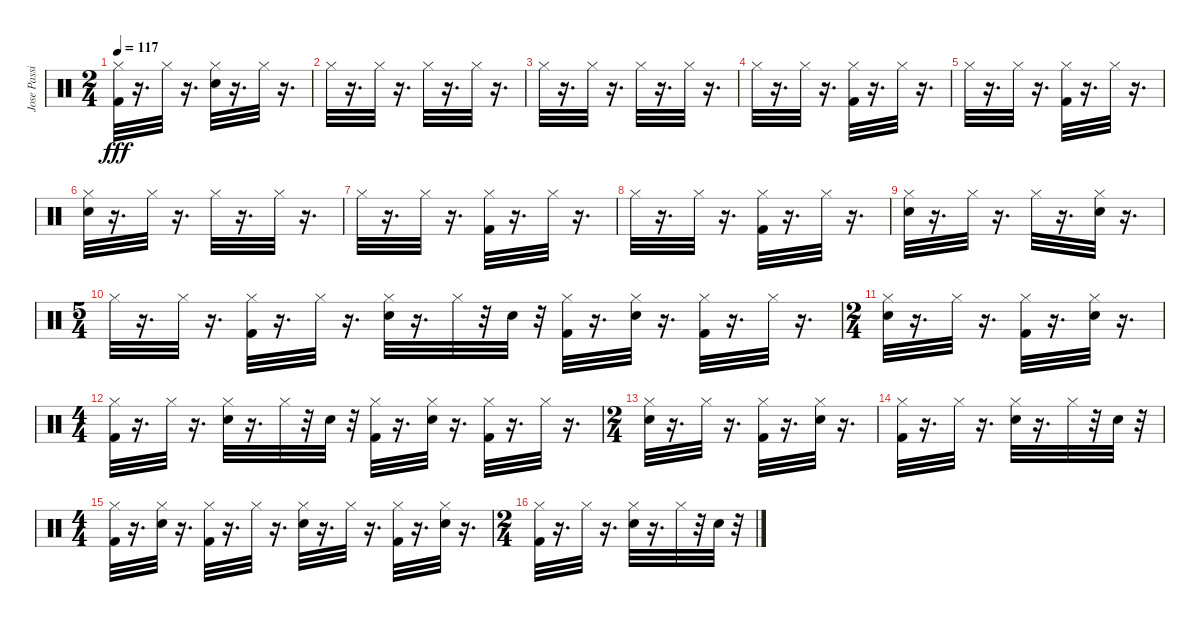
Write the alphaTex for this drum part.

\track ("Jose Passilas-drums" "Jose Passi") {instrument percussion}
\staff {score}
\articulation defaults
\ts (2 4)
\tempo 117
\clef neutral
\ks c
("Kick (hit) 2" "Hi-Hat (closed)").32{dy fff} r.16{d} "Hi-Hat (closed)".32 r.16{d} ("Electric Snare (hit)" "Hi-Hat (closed)").32 r.16{d} "Hi-Hat (closed)".32 r.16{d} |
"Hi-Hat (closed)".32 r.16{d} "Hi-Hat (closed)".32 r.16{d} "Hi-Hat (closed)".32 r.16{d} "Hi-Hat (closed)".32 r.16{d} |
"Hi-Hat (closed)".32 r.16{d} "Hi-Hat (closed)".32 r.16{d} "Hi-Hat (closed)".32 r.16{d} "Hi-Hat (closed)".32 r.16{d} |
"Hi-Hat (closed)".32 r.16{d} "Hi-Hat (closed)".32 r.16{d} ("Kick (hit) 2" "Hi-Hat (closed)").32 r.16{d} "Hi-Hat (closed)".32 r.16{d} |
"Hi-Hat (closed)".32 r.16{d} "Hi-Hat (closed)".32 r.16{d} ("Kick (hit) 2" "Hi-Hat (closed)").32 r.16{d} "Hi-Hat (closed)".32 r.16{d} |
("Electric Snare (hit)" "Hi-Hat (closed)").32 r.16{d} "Hi-Hat (closed)".32 r.16{d} "Hi-Hat (closed)".32 r.16{d} "Hi-Hat (closed)".32 r.16{d} |
"Hi-Hat (closed)".32 r.16{d} "Hi-Hat (closed)".32 r.16{d} ("Kick (hit) 2" "Hi-Hat (closed)").32 r.16{d} "Hi-Hat (closed)".32 r.16{d} |
"Hi-Hat (closed)".32 r.16{d} "Hi-Hat (closed)".32 r.16{d} ("Hi-Hat (closed)" "Kick (hit) 2").32 r.16{d} "Hi-Hat (closed)".32 r.16{d} |
("Electric Snare (hit)" "Hi-Hat (closed)").32 r.16{d} "Hi-Hat (closed)".32 r.16{d} "Hi-Hat (closed)".32 r.16{d} ("Electric Snare (hit)" "Hi-Hat (closed)").32 r.16{d} |
\ts (5 4)
"Hi-Hat (closed)".32 r.16{d} "Hi-Hat (closed)".32 r.16{d} ("Hi-Hat (closed)" "Kick (hit) 2").32 r.16{d} "Hi-Hat (closed)".32 r.16{d} ("Electric Snare (hit)" "Hi-Hat (closed)").32 r.16{d} "Hi-Hat (closed)".32 r.32 "Electric Snare (hit)".32 r.32 ("Hi-Hat (closed)" "Kick (hit) 2").32 r.16{d} ("Electric Snare (hit)" "Hi-Hat (closed)").32 r.16{d} ("Hi-Hat (closed)" "Kick (hit) 2").32 r.16{d} "Hi-Hat (closed)".32 r.16{d} |
\ts (2 4)
("Electric Snare (hit)" "Hi-Hat (closed)").32 r.16{d} "Hi-Hat (closed)".32 r.16{d} ("Hi-Hat (closed)" "Kick (hit) 2").32 r.16{d} ("Electric Snare (hit)" "Hi-Hat (closed)").32 r.16{d} |
\ts (4 4)
("Kick (hit) 2" "Hi-Hat (closed)").32 r.16{d} "Hi-Hat (closed)".32 r.16{d} ("Electric Snare (hit)" "Hi-Hat (closed)").32 r.16{d} "Hi-Hat (closed)".32 r.32 "Electric Snare (hit)".32 r.32 ("Kick (hit) 2" "Hi-Hat (closed)").32 r.16{d} ("Electric Snare (hit)" "Hi-Hat (closed)").32 r.16{d} ("Kick (hit) 2" "Hi-Hat (closed)").32 r.16{d} "Hi-Hat (closed)".32 r.16{d} |
\ts (2 4)
("Electric Snare (hit)" "Hi-Hat (closed)").32 r.16{d} "Hi-Hat (closed)".32 r.16{d} ("Kick (hit) 2" "Hi-Hat (closed)").32 r.16{d} ("Electric Snare (hit)" "Hi-Hat (closed)").32 r.16{d} |
("Hi-Hat (closed)" "Kick (hit) 2").32 r.16{d} "Hi-Hat (closed)".32 r.16{d} ("Electric Snare (hit)" "Hi-Hat (closed)").32 r.16{d} "Hi-Hat (closed)".32 r.32 "Electric Snare (hit)".32 r.32 |
\ts (4 4)
("Hi-Hat (closed)" "Kick (hit) 2").32 r.16{d} ("Electric Snare (hit)" "Hi-Hat (closed)").32 r.16{d} ("Hi-Hat (closed)" "Kick (hit) 2").32 r.16{d} "Hi-Hat (closed)".32 r.16{d} ("Electric Snare (hit)" "Hi-Hat (closed)").32 r.16{d} "Hi-Hat (closed)".32 r.16{d} ("Hi-Hat (closed)" "Kick (hit) 2").32 r.16{d} ("Electric Snare (hit)" "Hi-Hat (closed)").32 r.16{d} |
\ts (2 4)
("Kick (hit) 2" "Hi-Hat (closed)").32 r.16{d} "Hi-Hat (closed)".32 r.16{d} ("Electric Snare (hit)" "Hi-Hat (closed)").32 r.16{d} "Hi-Hat (closed)".32 r.32 "Electric Snare (hit)".32 r.32
